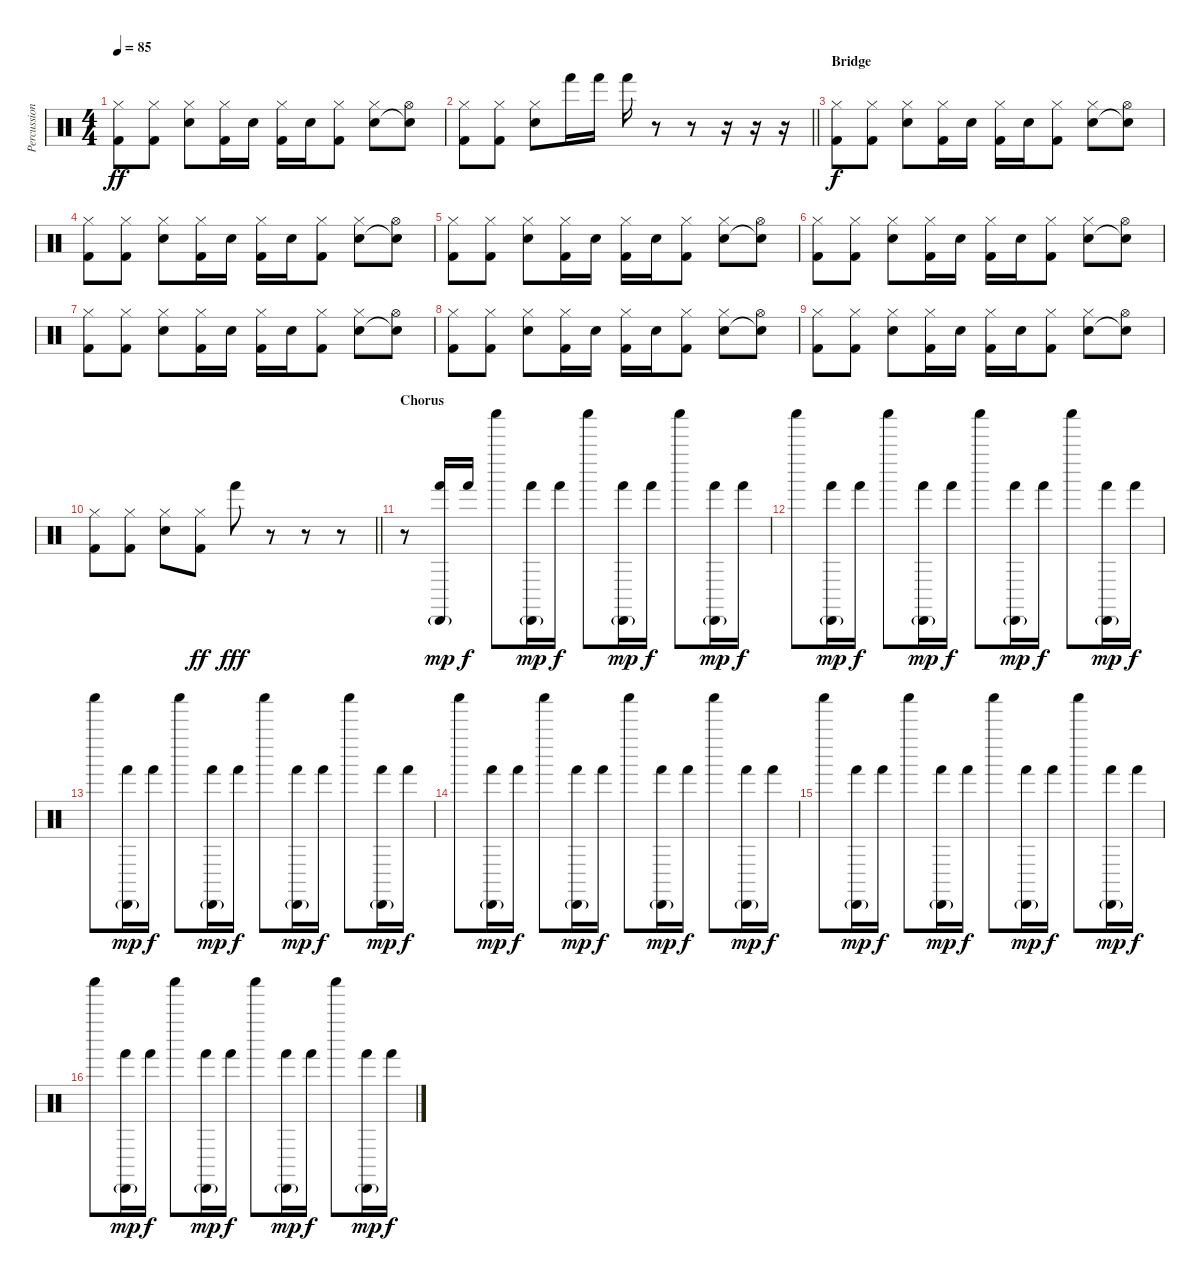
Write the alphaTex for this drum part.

\track ("Percussion" "Percussion") {instrument percussion}
\staff {score}
\articulation defaults
\ts (4 4)
\tempo 85
\clef neutral
\ks c
("Hi-Hat (closed)" "Kick (hit) 2").8{dy ff} ("Hi-Hat (closed)" "Kick (hit) 2").8 ("Hi-Hat (closed)" "Electric Snare (hit)").8 ("Hi-Hat (closed)" "Kick (hit) 2").16 "Electric Snare (hit)".16 ("Hi-Hat (closed)" "Kick (hit) 2").16 "Electric Snare (hit)".16 ("Hi-Hat (closed)" "Kick (hit) 2").8 ("Hi-Hat (closed)" "Electric Snare (hit)").8 ("Hi-Hat (open)" "Snare (hit)"{t}).8 |
\barLineRight lightlight
("Hi-Hat (closed)" "Kick (hit) 2").8 ("Hi-Hat (closed)" "Kick (hit) 2").8 ("Hi-Hat (closed)" "Electric Snare (hit)").8 "Hand (hit)".16 "Hand (hit)".16 "Hand (hit)".16 r.8 r.8 r.16 r.16 r.16 |
\section ("" "Bridge")
("Hi-Hat (closed)" "Kick (hit) 2").8{dy f} ("Hi-Hat (closed)" "Kick (hit) 2").8 ("Hi-Hat (closed)" "Electric Snare (hit)").8 ("Hi-Hat (closed)" "Kick (hit) 2").16 "Electric Snare (hit)".16 ("Hi-Hat (closed)" "Kick (hit) 2").16 "Electric Snare (hit)".16 ("Hi-Hat (closed)" "Kick (hit) 2").8 ("Hi-Hat (closed)" "Electric Snare (hit)").8 ("Hi-Hat (open)" "Snare (hit)"{t}).8 |
("Hi-Hat (closed)" "Kick (hit) 2").8 ("Hi-Hat (closed)" "Kick (hit) 2").8 ("Hi-Hat (closed)" "Electric Snare (hit)").8 ("Hi-Hat (closed)" "Kick (hit) 2").16 "Electric Snare (hit)".16 ("Hi-Hat (closed)" "Kick (hit) 2").16 "Electric Snare (hit)".16 ("Hi-Hat (closed)" "Kick (hit) 2").8 ("Hi-Hat (closed)" "Electric Snare (hit)").8 ("Hi-Hat (open)" "Snare (hit)"{t}).8 |
("Hi-Hat (closed)" "Kick (hit) 2").8 ("Hi-Hat (closed)" "Kick (hit) 2").8 ("Hi-Hat (closed)" "Electric Snare (hit)").8 ("Hi-Hat (closed)" "Kick (hit) 2").16 "Electric Snare (hit)".16 ("Hi-Hat (closed)" "Kick (hit) 2").16 "Electric Snare (hit)".16 ("Hi-Hat (closed)" "Kick (hit) 2").8 ("Hi-Hat (closed)" "Electric Snare (hit)").8 ("Hi-Hat (open)" "Snare (hit)"{t}).8 |
("Hi-Hat (closed)" "Kick (hit) 2").8 ("Hi-Hat (closed)" "Kick (hit) 2").8 ("Hi-Hat (closed)" "Electric Snare (hit)").8 ("Hi-Hat (closed)" "Kick (hit) 2").16 "Electric Snare (hit)".16 ("Hi-Hat (closed)" "Kick (hit) 2").16 "Electric Snare (hit)".16 ("Hi-Hat (closed)" "Kick (hit) 2").8 ("Hi-Hat (closed)" "Electric Snare (hit)").8 ("Hi-Hat (open)" "Snare (hit)"{t}).8 |
("Hi-Hat (closed)" "Kick (hit) 2").8 ("Hi-Hat (closed)" "Kick (hit) 2").8 ("Hi-Hat (closed)" "Electric Snare (hit)").8 ("Hi-Hat (closed)" "Kick (hit) 2").16 "Electric Snare (hit)".16 ("Hi-Hat (closed)" "Kick (hit) 2").16 "Electric Snare (hit)".16 ("Hi-Hat (closed)" "Kick (hit) 2").8 ("Hi-Hat (closed)" "Electric Snare (hit)").8 ("Hi-Hat (open)" "Snare (hit)"{t}).8 |
("Hi-Hat (closed)" "Kick (hit) 2").8 ("Hi-Hat (closed)" "Kick (hit) 2").8 ("Hi-Hat (closed)" "Electric Snare (hit)").8 ("Hi-Hat (closed)" "Kick (hit) 2").16 "Electric Snare (hit)".16 ("Hi-Hat (closed)" "Kick (hit) 2").16 "Electric Snare (hit)".16 ("Hi-Hat (closed)" "Kick (hit) 2").8 ("Hi-Hat (closed)" "Electric Snare (hit)").8 ("Hi-Hat (open)" "Snare (hit)"{t}).8 |
("Hi-Hat (closed)" "Kick (hit) 2").8 ("Hi-Hat (closed)" "Kick (hit) 2").8 ("Hi-Hat (closed)" "Electric Snare (hit)").8 ("Hi-Hat (closed)" "Kick (hit) 2").16 "Electric Snare (hit)".16 ("Hi-Hat (closed)" "Kick (hit) 2").16 "Electric Snare (hit)".16 ("Hi-Hat (closed)" "Kick (hit) 2").8 ("Hi-Hat (closed)" "Electric Snare (hit)").8 ("Hi-Hat (open)" "Snare (hit)"{t}).8 |
\barLineRight lightlight
("Hi-Hat (closed)" "Kick (hit) 2").8 ("Hi-Hat (closed)" "Kick (hit) 2").8 ("Hi-Hat (closed)" "Electric Snare (hit)").8 ("Hi-Hat (closed)" "Kick (hit) 2").8{dy ff} "Hand (hit)".8{dy fff} r.8 r.8 r.8 |
\section ("" "Chorus")
r.8{volume 13} ("Cabasa (hit)"{g} "Hand (hit)").16{dy mp} "Hand (hit)".16{dy f} "Shaker (hit)".8 ("Cabasa (hit)"{g} "Hand (hit)").16{dy mp} "Hand (hit)".16{dy f} "Shaker (hit)".8 ("Cabasa (hit)"{g} "Hand (hit)").16{dy mp} "Hand (hit)".16{dy f} "Shaker (hit)".8 ("Cabasa (hit)"{g} "Hand (hit)").16{dy mp} "Hand (hit)".16{dy f} |
"Shaker (hit)".8 ("Cabasa (hit)"{g} "Hand (hit)").16{dy mp} "Hand (hit)".16{dy f} "Shaker (hit)".8 ("Cabasa (hit)"{g} "Hand (hit)").16{dy mp} "Hand (hit)".16{dy f} "Shaker (hit)".8 ("Cabasa (hit)"{g} "Hand (hit)").16{dy mp} "Hand (hit)".16{dy f} "Shaker (hit)".8 ("Cabasa (hit)"{g} "Hand (hit)").16{dy mp} "Hand (hit)".16{dy f} |
"Shaker (hit)".8 ("Cabasa (hit)"{g} "Hand (hit)").16{dy mp} "Hand (hit)".16{dy f} "Shaker (hit)".8 ("Cabasa (hit)"{g} "Hand (hit)").16{dy mp} "Hand (hit)".16{dy f} "Shaker (hit)".8 ("Cabasa (hit)"{g} "Hand (hit)").16{dy mp} "Hand (hit)".16{dy f} "Shaker (hit)".8 ("Cabasa (hit)"{g} "Hand (hit)").16{dy mp} "Hand (hit)".16{dy f} |
"Shaker (hit)".8 ("Cabasa (hit)"{g} "Hand (hit)").16{dy mp} "Hand (hit)".16{dy f} "Shaker (hit)".8 ("Cabasa (hit)"{g} "Hand (hit)").16{dy mp} "Hand (hit)".16{dy f} "Shaker (hit)".8 ("Cabasa (hit)"{g} "Hand (hit)").16{dy mp} "Hand (hit)".16{dy f} "Shaker (hit)".8 ("Cabasa (hit)"{g} "Hand (hit)").16{dy mp} "Hand (hit)".16{dy f} |
"Shaker (hit)".8 ("Cabasa (hit)"{g} "Hand (hit)").16{dy mp} "Hand (hit)".16{dy f} "Shaker (hit)".8 ("Cabasa (hit)"{g} "Hand (hit)").16{dy mp} "Hand (hit)".16{dy f} "Shaker (hit)".8 ("Cabasa (hit)"{g} "Hand (hit)").16{dy mp} "Hand (hit)".16{dy f} "Shaker (hit)".8 ("Cabasa (hit)"{g} "Hand (hit)").16{dy mp} "Hand (hit)".16{dy f} |
"Shaker (hit)".8 ("Cabasa (hit)"{g} "Hand (hit)").16{dy mp} "Hand (hit)".16{dy f} "Shaker (hit)".8 ("Cabasa (hit)"{g} "Hand (hit)").16{dy mp} "Hand (hit)".16{dy f} "Shaker (hit)".8 ("Cabasa (hit)"{g} "Hand (hit)").16{dy mp} "Hand (hit)".16{dy f} "Shaker (hit)".8 ("Cabasa (hit)"{g} "Hand (hit)").16{dy mp} "Hand (hit)".16{dy f}
